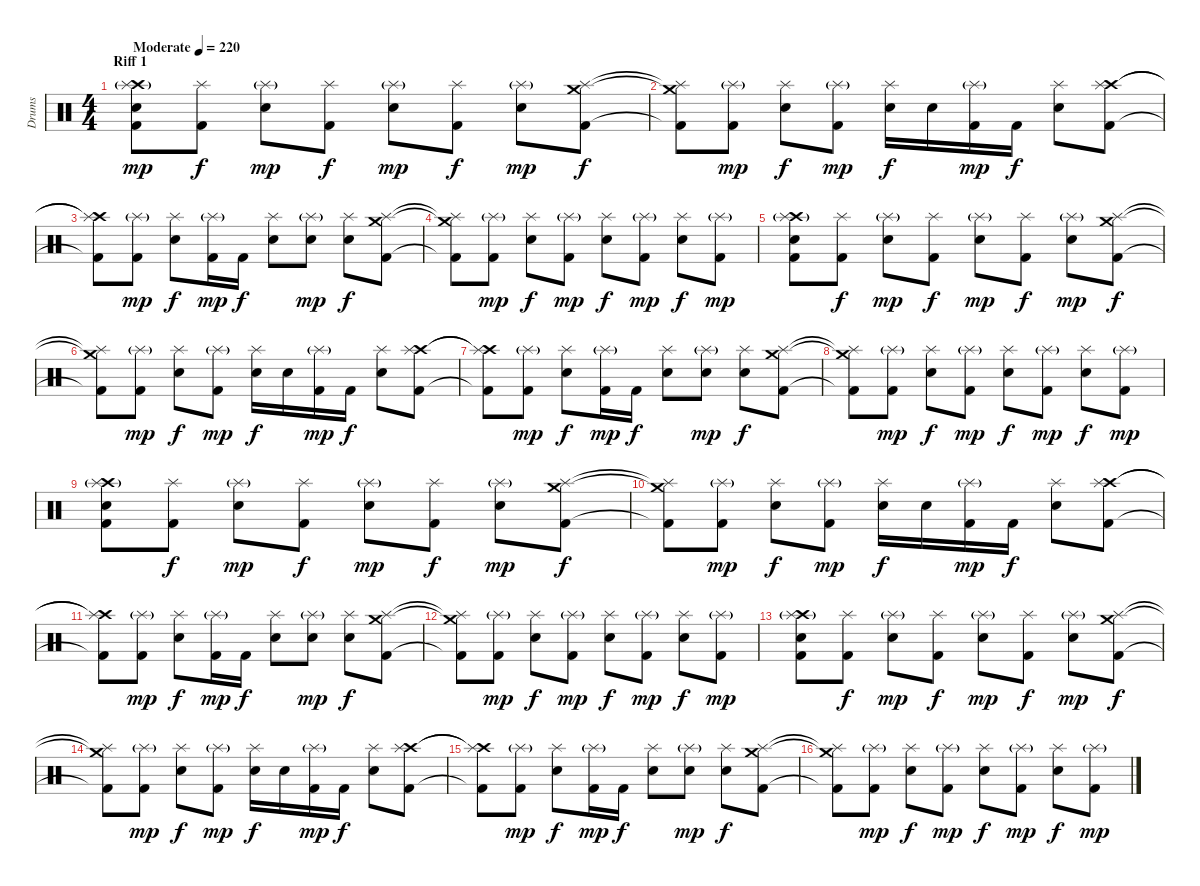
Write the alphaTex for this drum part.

\track ("Drums" "Drums") {instrument percussion}
\staff {score}
\articulation defaults
\ts (4 4)
\section ("" "Riff 1")
\tempo (220 "Moderate")
\clef neutral
\ks c
("Crash high (hit)" "Splash (hit)"{g} "Electric Snare (hit)" "Kick (hit) 2").8{dy mp} ("Splash (hit)" "Kick (hit) 2").8{dy f} ("Splash (hit)"{g} "Electric Snare (hit)").8{dy mp} ("Splash (hit)" "Kick (hit) 2").8{dy f} ("Splash (hit)"{g} "Electric Snare (hit)").8{dy mp} ("Splash (hit)" "Kick (hit) 2").8{dy f} ("Splash (hit)"{g} "Electric Snare (hit)").8{dy mp} ("Crash medium (hit)" "Splash (hit)" "Kick (hit) 2").8{dy f} |
("Crash medium (hit)"{t} "Splash (hit)"{t} "Kick (hit) 2"{t}).8 ("Splash (hit)"{g} "Kick (hit) 2").8{dy mp} ("Splash (hit)" "Electric Snare (hit)").8{dy f} ("Splash (hit)"{g} "Kick (hit) 2").8{dy mp} ("Splash (hit)" "Electric Snare (hit)").16{dy f} "Electric Snare (hit)".16 ("Splash (hit)"{g} "Kick (hit) 2").16{dy mp} "Kick (hit) 2".16{dy f} ("Splash (hit)" "Electric Snare (hit)").8 ("Crash high (hit)" "Splash (hit)" "Kick (hit) 2").8 |
("Crash high (hit)"{t} "Splash (hit)"{t} "Kick (hit) 2"{t}).8 ("Splash (hit)"{g} "Kick (hit) 2").8{dy mp} ("Splash (hit)" "Electric Snare (hit)").8{dy f} ("Splash (hit)"{g} "Kick (hit) 2").16{dy mp} "Kick (hit) 2".16{dy f} ("Splash (hit)" "Electric Snare (hit)").8 ("Splash (hit)"{g} "Electric Snare (hit)").8{dy mp} ("Splash (hit)" "Electric Snare (hit)").8{dy f} ("Crash medium (hit)" "Splash (hit)" "Kick (hit) 2").8 |
("Crash medium (hit)"{t} "Splash (hit)"{t} "Kick (hit) 2"{t}).8 ("Splash (hit)"{g} "Kick (hit) 2").8{dy mp} ("Splash (hit)" "Electric Snare (hit)").8{dy f} ("Splash (hit)"{g} "Kick (hit) 2").8{dy mp} ("Splash (hit)" "Electric Snare (hit)").8{dy f} ("Splash (hit)"{g} "Kick (hit) 2").8{dy mp} ("Splash (hit)" "Electric Snare (hit)").8{dy f} ("Splash (hit)"{g} "Kick (hit) 2").8{dy mp} |
("Crash high (hit)" "Splash (hit)"{g} "Electric Snare (hit)" "Kick (hit) 2").8 ("Splash (hit)" "Kick (hit) 2").8{dy f} ("Splash (hit)"{g} "Electric Snare (hit)").8{dy mp} ("Splash (hit)" "Kick (hit) 2").8{dy f} ("Splash (hit)"{g} "Electric Snare (hit)").8{dy mp} ("Splash (hit)" "Kick (hit) 2").8{dy f} ("Splash (hit)"{g} "Electric Snare (hit)").8{dy mp} ("Crash medium (hit)" "Splash (hit)" "Kick (hit) 2").8{dy f} |
("Crash medium (hit)"{t} "Splash (hit)"{t} "Kick (hit) 2"{t}).8 ("Splash (hit)"{g} "Kick (hit) 2").8{dy mp} ("Splash (hit)" "Electric Snare (hit)").8{dy f} ("Splash (hit)"{g} "Kick (hit) 2").8{dy mp} ("Splash (hit)" "Electric Snare (hit)").16{dy f} "Electric Snare (hit)".16 ("Splash (hit)"{g} "Kick (hit) 2").16{dy mp} "Kick (hit) 2".16{dy f} ("Splash (hit)" "Electric Snare (hit)").8 ("Crash high (hit)" "Splash (hit)" "Kick (hit) 2").8 |
("Crash high (hit)"{t} "Splash (hit)"{t} "Kick (hit) 2"{t}).8 ("Splash (hit)"{g} "Kick (hit) 2").8{dy mp} ("Splash (hit)" "Electric Snare (hit)").8{dy f} ("Splash (hit)"{g} "Kick (hit) 2").16{dy mp} "Kick (hit) 2".16{dy f} ("Splash (hit)" "Electric Snare (hit)").8 ("Splash (hit)"{g} "Electric Snare (hit)").8{dy mp} ("Splash (hit)" "Electric Snare (hit)").8{dy f} ("Crash medium (hit)" "Splash (hit)" "Kick (hit) 2").8 |
("Crash medium (hit)"{t} "Splash (hit)"{t} "Kick (hit) 2"{t}).8 ("Splash (hit)"{g} "Kick (hit) 2").8{dy mp} ("Splash (hit)" "Electric Snare (hit)").8{dy f} ("Splash (hit)"{g} "Kick (hit) 2").8{dy mp} ("Splash (hit)" "Electric Snare (hit)").8{dy f} ("Splash (hit)"{g} "Kick (hit) 2").8{dy mp} ("Splash (hit)" "Electric Snare (hit)").8{dy f} ("Splash (hit)"{g} "Kick (hit) 2").8{dy mp} |
("Crash high (hit)" "Splash (hit)"{g} "Electric Snare (hit)" "Kick (hit) 2").8 ("Splash (hit)" "Kick (hit) 2").8{dy f} ("Splash (hit)"{g} "Electric Snare (hit)").8{dy mp} ("Splash (hit)" "Kick (hit) 2").8{dy f} ("Splash (hit)"{g} "Electric Snare (hit)").8{dy mp} ("Splash (hit)" "Kick (hit) 2").8{dy f} ("Splash (hit)"{g} "Electric Snare (hit)").8{dy mp} ("Crash medium (hit)" "Splash (hit)" "Kick (hit) 2").8{dy f} |
("Crash medium (hit)"{t} "Splash (hit)"{t} "Kick (hit) 2"{t}).8 ("Splash (hit)"{g} "Kick (hit) 2").8{dy mp} ("Splash (hit)" "Electric Snare (hit)").8{dy f} ("Splash (hit)"{g} "Kick (hit) 2").8{dy mp} ("Splash (hit)" "Electric Snare (hit)").16{dy f} "Electric Snare (hit)".16 ("Splash (hit)"{g} "Kick (hit) 2").16{dy mp} "Kick (hit) 2".16{dy f} ("Splash (hit)" "Electric Snare (hit)").8 ("Crash high (hit)" "Splash (hit)" "Kick (hit) 2").8 |
("Crash high (hit)"{t} "Splash (hit)"{t} "Kick (hit) 2"{t}).8 ("Splash (hit)"{g} "Kick (hit) 2").8{dy mp} ("Splash (hit)" "Electric Snare (hit)").8{dy f} ("Splash (hit)"{g} "Kick (hit) 2").16{dy mp} "Kick (hit) 2".16{dy f} ("Splash (hit)" "Electric Snare (hit)").8 ("Splash (hit)"{g} "Electric Snare (hit)").8{dy mp} ("Splash (hit)" "Electric Snare (hit)").8{dy f} ("Crash medium (hit)" "Splash (hit)" "Kick (hit) 2").8 |
("Crash medium (hit)"{t} "Splash (hit)"{t} "Kick (hit) 2"{t}).8 ("Splash (hit)"{g} "Kick (hit) 2").8{dy mp} ("Splash (hit)" "Electric Snare (hit)").8{dy f} ("Splash (hit)"{g} "Kick (hit) 2").8{dy mp} ("Splash (hit)" "Electric Snare (hit)").8{dy f} ("Splash (hit)"{g} "Kick (hit) 2").8{dy mp} ("Splash (hit)" "Electric Snare (hit)").8{dy f} ("Splash (hit)"{g} "Kick (hit) 2").8{dy mp} |
("Crash high (hit)" "Splash (hit)"{g} "Electric Snare (hit)" "Kick (hit) 2").8 ("Splash (hit)" "Kick (hit) 2").8{dy f} ("Splash (hit)"{g} "Electric Snare (hit)").8{dy mp} ("Splash (hit)" "Kick (hit) 2").8{dy f} ("Splash (hit)"{g} "Electric Snare (hit)").8{dy mp} ("Splash (hit)" "Kick (hit) 2").8{dy f} ("Splash (hit)"{g} "Electric Snare (hit)").8{dy mp} ("Crash medium (hit)" "Splash (hit)" "Kick (hit) 2").8{dy f} |
("Crash medium (hit)"{t} "Splash (hit)"{t} "Kick (hit) 2"{t}).8 ("Splash (hit)"{g} "Kick (hit) 2").8{dy mp} ("Splash (hit)" "Electric Snare (hit)").8{dy f} ("Splash (hit)"{g} "Kick (hit) 2").8{dy mp} ("Splash (hit)" "Electric Snare (hit)").16{dy f} "Electric Snare (hit)".16 ("Splash (hit)"{g} "Kick (hit) 2").16{dy mp} "Kick (hit) 2".16{dy f} ("Splash (hit)" "Electric Snare (hit)").8 ("Crash high (hit)" "Splash (hit)" "Kick (hit) 2").8 |
("Crash high (hit)"{t} "Splash (hit)"{t} "Kick (hit) 2"{t}).8 ("Splash (hit)"{g} "Kick (hit) 2").8{dy mp} ("Splash (hit)" "Electric Snare (hit)").8{dy f} ("Splash (hit)"{g} "Kick (hit) 2").16{dy mp} "Kick (hit) 2".16{dy f} ("Splash (hit)" "Electric Snare (hit)").8 ("Splash (hit)"{g} "Electric Snare (hit)").8{dy mp} ("Splash (hit)" "Electric Snare (hit)").8{dy f} ("Crash medium (hit)" "Splash (hit)" "Kick (hit) 2").8 |
("Crash medium (hit)"{t} "Splash (hit)"{t} "Kick (hit) 2"{t}).8 ("Splash (hit)"{g} "Kick (hit) 2").8{dy mp} ("Splash (hit)" "Electric Snare (hit)").8{dy f} ("Splash (hit)"{g} "Kick (hit) 2").8{dy mp} ("Splash (hit)" "Electric Snare (hit)").8{dy f} ("Splash (hit)"{g} "Kick (hit) 2").8{dy mp} ("Splash (hit)" "Electric Snare (hit)").8{dy f} ("Splash (hit)"{g} "Kick (hit) 2").8{dy mp}
